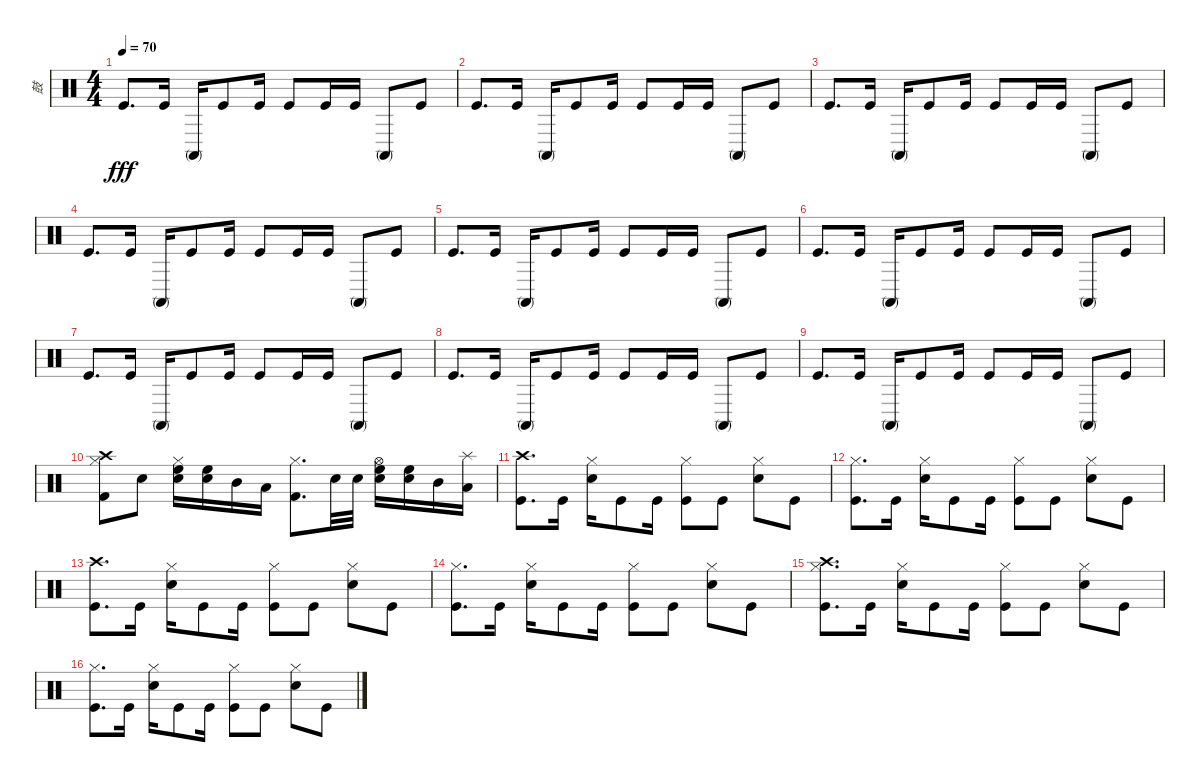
\track ("鼓" "鼓") {instrument percussion}
\staff {score}
\articulation defaults
\ts (4 4)
\tempo 70
\clef neutral
\ks c "Kick (hit)".8{d dy fff} "Kick (hit)".16 "Conga high (mute)".16 "Kick (hit)".8 "Kick (hit)".16 "Kick (hit)".8 "Kick (hit)".16 "Kick (hit)".16 "Conga high (mute)".8 "Kick (hit)".8
|
"Kick (hit)".8{d} "Kick (hit)".16 "Conga high (mute)".16 "Kick (hit)".8 "Kick (hit)".16 "Kick (hit)".8 "Kick (hit)".16 "Kick (hit)".16 "Conga high (mute)".8 "Kick (hit)".8 |
"Kick (hit)".8{d} "Kick (hit)".16 "Conga high (mute)".16 "Kick (hit)".8 "Kick (hit)".16 "Kick (hit)".8 "Kick (hit)".16 "Kick (hit)".16 "Conga high (mute)".8 "Kick (hit)".8 |
"Kick (hit)".8{d} "Kick (hit)".16 "Conga high (mute)".16 "Kick (hit)".8 "Kick (hit)".16 "Kick (hit)".8 "Kick (hit)".16 "Kick (hit)".16 "Conga high (mute)".8 "Kick (hit)".8 |
"Kick (hit)".8{d} "Kick (hit)".16 "Conga high (mute)".16 "Kick (hit)".8 "Kick (hit)".16 "Kick (hit)".8 "Kick (hit)".16 "Kick (hit)".16 "Conga high (mute)".8 "Kick (hit)".8 |
"Kick (hit)".8{d} "Kick (hit)".16 "Conga high (mute)".16 "Kick (hit)".8 "Kick (hit)".16 "Kick (hit)".8 "Kick (hit)".16 "Kick (hit)".16 "Conga high (mute)".8 "Kick (hit)".8 |
"Kick (hit)".8{d} "Kick (hit)".16 "Conga high (mute)".16 "Kick (hit)".8 "Kick (hit)".16 "Kick (hit)".8 "Kick (hit)".16 "Kick (hit)".16 "Conga high (mute)".8 "Kick (hit)".8 |
"Kick (hit)".8{d} "Kick (hit)".16 "Conga high (mute)".16 "Kick (hit)".8 "Kick (hit)".16 "Kick (hit)".8 "Kick (hit)".16 "Kick (hit)".16 "Conga high (mute)".8 "Kick (hit)".8 |
"Kick (hit)".8{d} "Kick (hit)".16 "Conga high (mute)".16 "Kick (hit)".8 "Kick (hit)".16 "Kick (hit)".8 "Kick (hit)".16 "Kick (hit)".16 "Conga high (mute)".8 "Kick (hit)".8 |
("Hi-Hat (closed)" "Crash high (hit)" "Kick (hit) 2").8 "Snare (hit) 2".8 ("Hi-Hat (closed)" "High Floor Tom (hit)" "Electric Snare (hit)").16 ("High Floor Tom (hit)" "Electric Snare (hit)").16 "Mid Tom (hit)".16 "Low Tom (hit)".16 ("Hi-Hat (closed)" "Kick (hit) 2").8{d} "Snare (hit) 2".32 "Snare (hit) 2".32 ("Hi-Hat (open)" "High Floor Tom (hit)" "Electric Snare (hit)").16 ("High Floor Tom (hit)" "Electric Snare (hit)").16 "Mid Tom (hit)".16 ("Splash (hit)" "Low Tom (hit)").16 |
("Crash high (hit)" "Kick (hit)").8{d} "Kick (hit)".16 ("Hi-Hat (closed)" "Electric Snare (hit)").16 "Kick (hit)".8 "Kick (hit)".16 ("Hi-Hat (closed)" "Kick (hit)").8 "Kick (hit)".8 ("Hi-Hat (closed)" "Electric Snare (hit)").8 "Kick (hit)".8 |
("Hi-Hat (closed)" "Kick (hit)").8{d} "Kick (hit)".16 ("Hi-Hat (closed)" "Electric Snare (hit)").16 "Kick (hit)".8 "Kick (hit)".16 ("Hi-Hat (closed)" "Kick (hit)").8 "Kick (hit)".8 ("Hi-Hat (closed)" "Electric Snare (hit)").8 "Kick (hit)".8 |
("Crash high (hit)" "Kick (hit)").8{d} "Kick (hit)".16 ("Hi-Hat (closed)" "Electric Snare (hit)").16 "Kick (hit)".8 "Kick (hit)".16 ("Hi-Hat (closed)" "Kick (hit)").8 "Kick (hit)".8 ("Hi-Hat (closed)" "Electric Snare (hit)").8 "Kick (hit)".8 |
("Hi-Hat (closed)" "Kick (hit)").8{d} "Kick (hit)".16 ("Hi-Hat (closed)" "Electric Snare (hit)").16 "Kick (hit)".8 "Kick (hit)".16 ("Hi-Hat (closed)" "Kick (hit)").8 "Kick (hit)".8 ("Hi-Hat (closed)" "Electric Snare (hit)").8 "Kick (hit)".8 |
("Crash high (hit)" "Hi-Hat (closed)" "Kick (hit)").8{d} "Kick (hit)".16 ("Hi-Hat (closed)" "Electric Snare (hit)").16 "Kick (hit)".8 "Kick (hit)".16 ("Hi-Hat (closed)" "Kick (hit)").8 "Kick (hit)".8 ("Hi-Hat (closed)" "Electric Snare (hit)").8 "Kick (hit)".8 |
("Hi-Hat (closed)" "Kick (hit)").8{d} "Kick (hit)".16 ("Hi-Hat (closed)" "Electric Snare (hit)").16 "Kick (hit)".8 "Kick (hit)".16 ("Hi-Hat (closed)" "Kick (hit)").8 "Kick (hit)".8 ("Hi-Hat (closed)" "Electric Snare (hit)").8 "Kick (hit)".8
